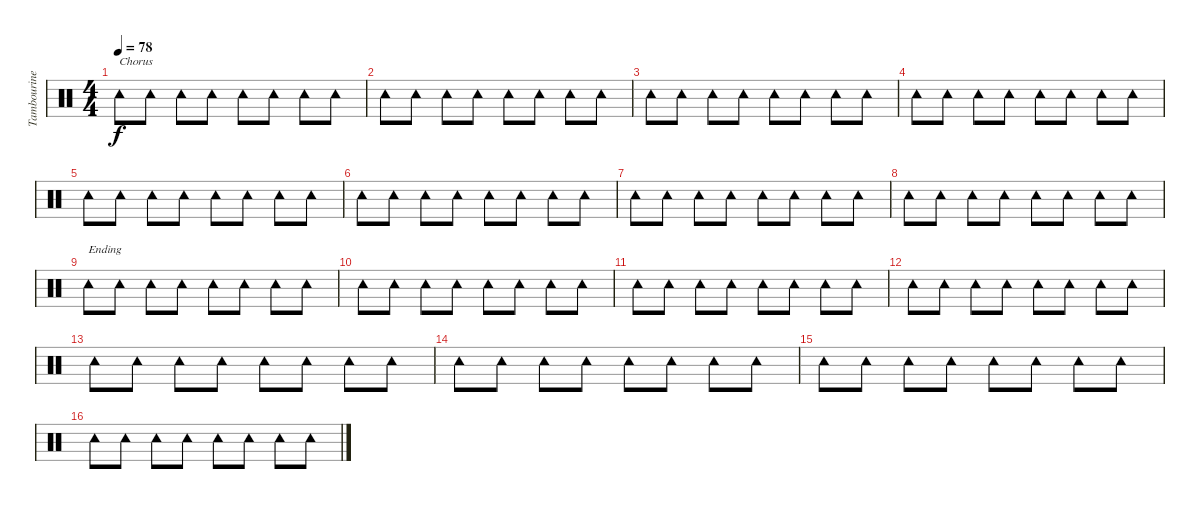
\track ("Tambourine" "Tambourine") {instrument percussion}
\staff {score}
\articulation defaults
\ts (4 4)
\tempo 78
\clef neutral
\ks c "Tambourine (hit)".8{txt "Chorus" dy f} "Tambourine (hit)".8 "Tambourine (hit)".8 "Tambourine (hit)".8 "Tambourine (hit)".8 "Tambourine (hit)".8 "Tambourine (hit)".8 "Tambourine (hit)".8
|
"Tambourine (hit)".8 "Tambourine (hit)".8 "Tambourine (hit)".8 "Tambourine (hit)".8 "Tambourine (hit)".8 "Tambourine (hit)".8 "Tambourine (hit)".8 "Tambourine (hit)".8 |
"Tambourine (hit)".8 "Tambourine (hit)".8 "Tambourine (hit)".8 "Tambourine (hit)".8 "Tambourine (hit)".8 "Tambourine (hit)".8 "Tambourine (hit)".8 "Tambourine (hit)".8 |
"Tambourine (hit)".8 "Tambourine (hit)".8 "Tambourine (hit)".8 "Tambourine (hit)".8 "Tambourine (hit)".8 "Tambourine (hit)".8 "Tambourine (hit)".8 "Tambourine (hit)".8 |
"Tambourine (hit)".8 "Tambourine (hit)".8 "Tambourine (hit)".8 "Tambourine (hit)".8 "Tambourine (hit)".8 "Tambourine (hit)".8 "Tambourine (hit)".8 "Tambourine (hit)".8 |
"Tambourine (hit)".8 "Tambourine (hit)".8 "Tambourine (hit)".8 "Tambourine (hit)".8 "Tambourine (hit)".8 "Tambourine (hit)".8 "Tambourine (hit)".8 "Tambourine (hit)".8 |
"Tambourine (hit)".8 "Tambourine (hit)".8 "Tambourine (hit)".8 "Tambourine (hit)".8 "Tambourine (hit)".8 "Tambourine (hit)".8 "Tambourine (hit)".8 "Tambourine (hit)".8 |
"Tambourine (hit)".8 "Tambourine (hit)".8 "Tambourine (hit)".8 "Tambourine (hit)".8 "Tambourine (hit)".8 "Tambourine (hit)".8 "Tambourine (hit)".8 "Tambourine (hit)".8 |
"Tambourine (hit)".8{txt "Ending"} "Tambourine (hit)".8 "Tambourine (hit)".8 "Tambourine (hit)".8 "Tambourine (hit)".8 "Tambourine (hit)".8 "Tambourine (hit)".8 "Tambourine (hit)".8 |
"Tambourine (hit)".8 "Tambourine (hit)".8 "Tambourine (hit)".8 "Tambourine (hit)".8 "Tambourine (hit)".8 "Tambourine (hit)".8 "Tambourine (hit)".8 "Tambourine (hit)".8 |
"Tambourine (hit)".8 "Tambourine (hit)".8 "Tambourine (hit)".8 "Tambourine (hit)".8 "Tambourine (hit)".8 "Tambourine (hit)".8 "Tambourine (hit)".8 "Tambourine (hit)".8 |
"Tambourine (hit)".8 "Tambourine (hit)".8 "Tambourine (hit)".8 "Tambourine (hit)".8 "Tambourine (hit)".8 "Tambourine (hit)".8 "Tambourine (hit)".8 "Tambourine (hit)".8 |
"Tambourine (hit)".8 "Tambourine (hit)".8 "Tambourine (hit)".8 "Tambourine (hit)".8 "Tambourine (hit)".8 "Tambourine (hit)".8 "Tambourine (hit)".8 "Tambourine (hit)".8 |
"Tambourine (hit)".8 "Tambourine (hit)".8 "Tambourine (hit)".8 "Tambourine (hit)".8 "Tambourine (hit)".8 "Tambourine (hit)".8 "Tambourine (hit)".8 "Tambourine (hit)".8 |
"Tambourine (hit)".8 "Tambourine (hit)".8 "Tambourine (hit)".8 "Tambourine (hit)".8 "Tambourine (hit)".8 "Tambourine (hit)".8 "Tambourine (hit)".8 "Tambourine (hit)".8 |
"Tambourine (hit)".8 "Tambourine (hit)".8 "Tambourine (hit)".8 "Tambourine (hit)".8 "Tambourine (hit)".8 "Tambourine (hit)".8 "Tambourine (hit)".8 "Tambourine (hit)".8
